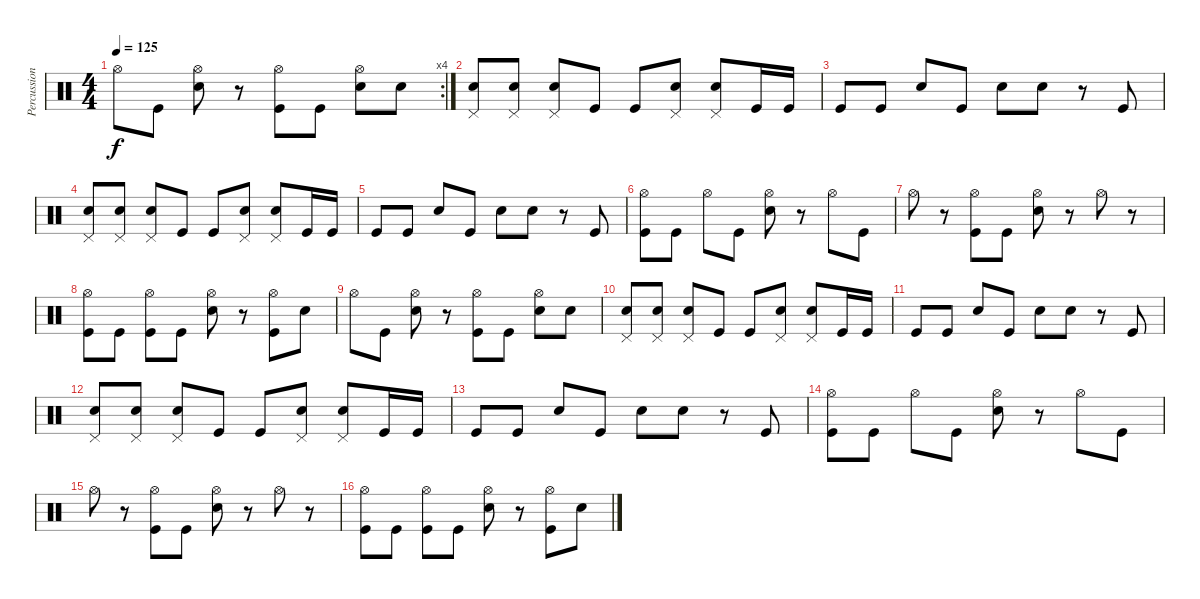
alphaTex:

\track ("Percussion" "Percussion") {instrument percussion}
\staff {score}
\articulation defaults
\rc 4
\ts (4 4)
\tempo 125
\clef neutral
\ks c "Hi-Hat (open)".8{dy f} "Kick (hit)".8
("Hi-Hat (open)" "Snare (hit) 2").8 r.8 ("Hi-Hat (open)" "Kick (hit)").8 "Kick (hit)".8 ("Hi-Hat (open)" "Snare (hit) 2").8 "Snare (hit) 2".8 |
("Pedal Hi-Hat (hit)" "Snare (hit) 2").8 ("Pedal Hi-Hat (hit)" "Snare (hit) 2").8 ("Pedal Hi-Hat (hit)" "Snare (hit) 2").8 "Kick (hit)".8 "Kick (hit)".8 ("Pedal Hi-Hat (hit)" "Snare (hit) 2").8 ("Pedal Hi-Hat (hit)" "Snare (hit) 2").8 "Kick (hit)".16 "Kick (hit)".16 |
"Kick (hit)".8 "Kick (hit)".8 "Snare (hit) 2".8 "Kick (hit)".8 "Snare (hit) 2".8 "Snare (hit) 2".8 r.8 "Kick (hit)".8 |
("Pedal Hi-Hat (hit)" "Snare (hit) 2").8 ("Pedal Hi-Hat (hit)" "Snare (hit) 2").8 ("Pedal Hi-Hat (hit)" "Snare (hit) 2").8 "Kick (hit)".8 "Kick (hit)".8 ("Pedal Hi-Hat (hit)" "Snare (hit) 2").8 ("Pedal Hi-Hat (hit)" "Snare (hit) 2").8 "Kick (hit)".16 "Kick (hit)".16 |
"Kick (hit)".8 "Kick (hit)".8 "Snare (hit) 2".8 "Kick (hit)".8 "Snare (hit) 2".8 "Snare (hit) 2".8 r.8 "Kick (hit)".8 |
("Hi-Hat (open)" "Kick (hit)").8 "Kick (hit)".8 "Hi-Hat (open)".8 "Kick (hit)".8 ("Hi-Hat (open)" "Snare (hit) 2").8 r.8 "Hi-Hat (open)".8 "Kick (hit)".8 |
"Hi-Hat (open)".8 r.8 ("Hi-Hat (open)" "Kick (hit)").8 "Kick (hit)".8 ("Hi-Hat (open)" "Snare (hit) 2").8 r.8 "Hi-Hat (open)".8 r.8 |
("Hi-Hat (open)" "Kick (hit)").8 "Kick (hit)".8 ("Hi-Hat (open)" "Kick (hit)").8 "Kick (hit)".8 ("Hi-Hat (open)" "Snare (hit) 2").8 r.8 ("Hi-Hat (open)" "Kick (hit)").8 "Snare (hit) 2".8 |
"Hi-Hat (open)".8 "Kick (hit)".8 ("Hi-Hat (open)" "Snare (hit) 2").8 r.8 ("Hi-Hat (open)" "Kick (hit)").8 "Kick (hit)".8 ("Hi-Hat (open)" "Snare (hit) 2").8 "Snare (hit) 2".8 |
("Pedal Hi-Hat (hit)" "Snare (hit) 2").8 ("Pedal Hi-Hat (hit)" "Snare (hit) 2").8 ("Pedal Hi-Hat (hit)" "Snare (hit) 2").8 "Kick (hit)".8 "Kick (hit)".8 ("Pedal Hi-Hat (hit)" "Snare (hit) 2").8 ("Pedal Hi-Hat (hit)" "Snare (hit) 2").8 "Kick (hit)".16 "Kick (hit)".16 |
"Kick (hit)".8 "Kick (hit)".8 "Snare (hit) 2".8 "Kick (hit)".8 "Snare (hit) 2".8 "Snare (hit) 2".8 r.8 "Kick (hit)".8 |
("Pedal Hi-Hat (hit)" "Snare (hit) 2").8 ("Pedal Hi-Hat (hit)" "Snare (hit) 2").8 ("Pedal Hi-Hat (hit)" "Snare (hit) 2").8 "Kick (hit)".8 "Kick (hit)".8 ("Pedal Hi-Hat (hit)" "Snare (hit) 2").8 ("Pedal Hi-Hat (hit)" "Snare (hit) 2").8 "Kick (hit)".16 "Kick (hit)".16 |
"Kick (hit)".8 "Kick (hit)".8 "Snare (hit) 2".8 "Kick (hit)".8 "Snare (hit) 2".8 "Snare (hit) 2".8 r.8 "Kick (hit)".8 |
("Hi-Hat (open)" "Kick (hit)").8 "Kick (hit)".8 "Hi-Hat (open)".8 "Kick (hit)".8 ("Hi-Hat (open)" "Snare (hit) 2").8 r.8 "Hi-Hat (open)".8 "Kick (hit)".8 |
"Hi-Hat (open)".8 r.8 ("Hi-Hat (open)" "Kick (hit)").8 "Kick (hit)".8 ("Hi-Hat (open)" "Snare (hit) 2").8 r.8 "Hi-Hat (open)".8 r.8 |
("Hi-Hat (open)" "Kick (hit)").8 "Kick (hit)".8 ("Hi-Hat (open)" "Kick (hit)").8 "Kick (hit)".8 ("Hi-Hat (open)" "Snare (hit) 2").8 r.8 ("Hi-Hat (open)" "Kick (hit)").8 "Snare (hit) 2".8
